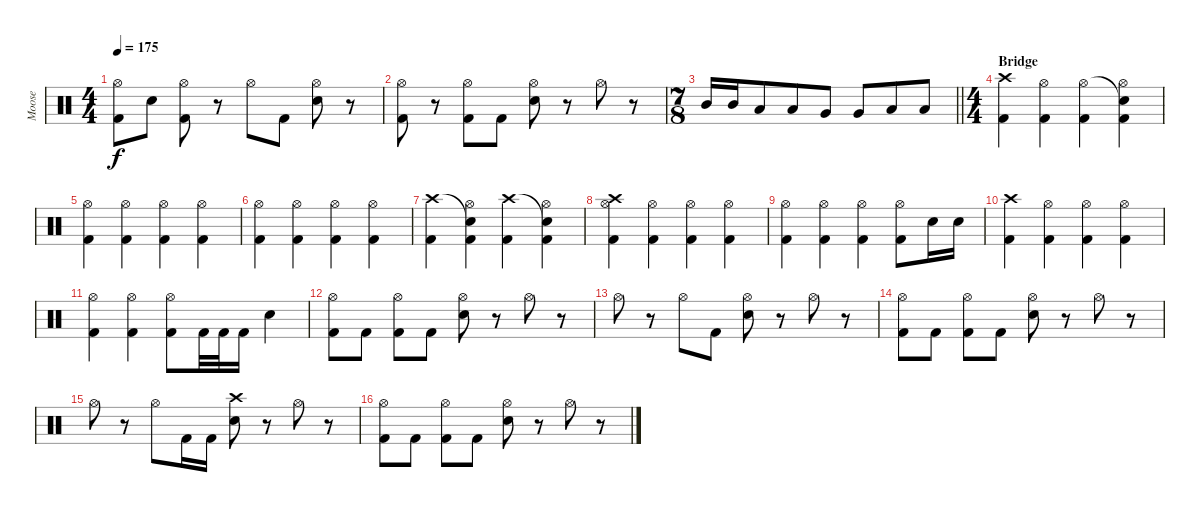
\track ("Moose" "Moose") {instrument percussion}
\staff {score}
\articulation defaults
\ts (4 4)
\tempo 175
\clef neutral
\ks c
("Hi-Hat (open)" "Kick (hit) 2").8{dy f} "Electric Snare (hit)".8 ("Hi-Hat (open)" "Kick (hit) 2").8 r.8 "Hi-Hat (open)".8 "Kick (hit) 2".8 ("Hi-Hat (open)" "Electric Snare (hit)").8 r.8 |
("Hi-Hat (open)" "Kick (hit) 2").8 r.8 ("Hi-Hat (open)" "Kick (hit) 2").8 "Kick (hit) 2".8 ("Hi-Hat (open)" "Electric Snare (hit)").8 r.8 "Hi-Hat (open)".8 r.8 |
\ts (7 8)
\barLineRight lightlight "Mid Tom (hit)".16 "Mid Tom (hit)".16 "Low Tom (hit)".8 "Low Tom (hit)".8 "Very Low Tom (hit)".8 "Very Low Tom (hit)".8 "Low Floor Tom (hit)".8 "Low Floor Tom (hit)".8
|
\ts (4 4)
\section ("" "Bridge")
("Crash high (hit)" "Kick (hit) 2").4 ("Hi-Hat (open)" "Kick (hit) 2").4 ("Hi-Hat (open)" "Kick (hit) 2").4 ("Snare (hit)"{t} "Hi-Hat (open)" "Kick (hit) 2").4 |
("Hi-Hat (open)" "Kick (hit) 2").4 ("Hi-Hat (open)" "Kick (hit) 2").4 ("Hi-Hat (open)" "Kick (hit) 2").4 ("Hi-Hat (open)" "Kick (hit) 2").4 |
("Hi-Hat (open)" "Kick (hit) 2").4 ("Hi-Hat (open)" "Kick (hit) 2").4 ("Hi-Hat (open)" "Kick (hit) 2").4 ("Hi-Hat (open)" "Kick (hit) 2").4 |
("Crash high (hit)" "Kick (hit) 2").4 ("Snare (hit)"{t} "Hi-Hat (open)" "Kick (hit) 2").4 ("Crash high (hit)" "Kick (hit) 2").4 ("Snare (hit)"{t} "Hi-Hat (open)" "Kick (hit) 2").4 |
("Crash high (hit)" "Hi-Hat (open)" "Kick (hit) 2").4 ("Hi-Hat (open)" "Kick (hit) 2").4 ("Hi-Hat (open)" "Kick (hit) 2").4 ("Hi-Hat (open)" "Kick (hit) 2").4 |
("Hi-Hat (open)" "Kick (hit) 2").4 ("Hi-Hat (open)" "Kick (hit) 2").4 ("Hi-Hat (open)" "Kick (hit) 2").4 ("Hi-Hat (open)" "Kick (hit) 2").8 "Electric Snare (hit)".16 "Electric Snare (hit)".16 |
("Crash high (hit)" "Kick (hit) 2").4 ("Hi-Hat (open)" "Kick (hit) 2").4 ("Hi-Hat (open)" "Kick (hit) 2").4 ("Hi-Hat (open)" "Kick (hit) 2").4 |
("Hi-Hat (open)" "Kick (hit) 2").4 ("Hi-Hat (open)" "Kick (hit) 2").4 ("Hi-Hat (open)" "Kick (hit) 2").8 "Kick (hit) 2".32 "Kick (hit) 2".32 "Kick (hit) 2".16 "Electric Snare (hit)".4 |
("Hi-Hat (open)" "Kick (hit) 2").8 "Kick (hit) 2".8 ("Hi-Hat (open)" "Kick (hit) 2").8 "Kick (hit) 2".8 ("Hi-Hat (open)" "Electric Snare (hit)").8 r.8 "Hi-Hat (open)".8 r.8 |
"Hi-Hat (open)".8 r.8 "Hi-Hat (open)".8 "Kick (hit) 2".8 ("Hi-Hat (open)" "Electric Snare (hit)").8 r.8 "Hi-Hat (open)".8 r.8 |
("Hi-Hat (open)" "Kick (hit) 2").8 "Kick (hit) 2".8 ("Hi-Hat (open)" "Kick (hit) 2").8 "Kick (hit) 2".8 ("Hi-Hat (open)" "Electric Snare (hit)").8 r.8 "Hi-Hat (open)".8 r.8 |
"Hi-Hat (open)".8 r.8 "Hi-Hat (open)".8 "Kick (hit) 2".16 "Kick (hit) 2".16 ("Crash high (hit)" "Electric Snare (hit)").8 r.8 "Hi-Hat (open)".8 r.8 |
("Hi-Hat (open)" "Kick (hit) 2").8 "Kick (hit) 2".8 ("Hi-Hat (open)" "Kick (hit) 2").8 "Kick (hit) 2".8 ("Hi-Hat (open)" "Electric Snare (hit)").8 r.8 "Hi-Hat (open)".8 r.8
